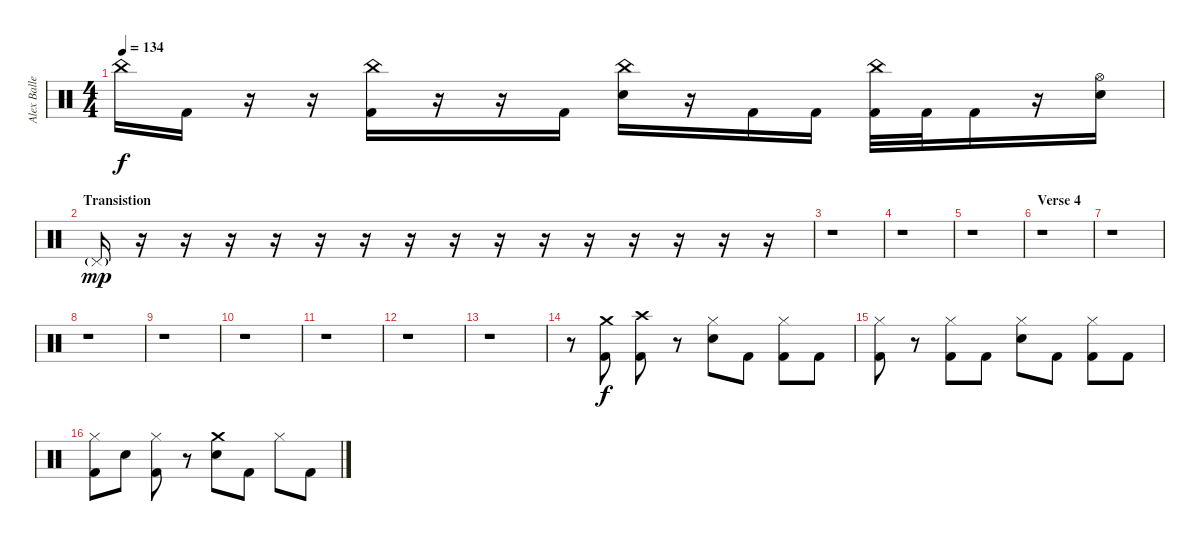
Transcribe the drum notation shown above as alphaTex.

\track ("Alex Ballew" "Alex Balle") {instrument percussion}
\staff {score}
\articulation defaults
\ts (4 4)
\tempo 134
\clef neutral
\ks c "China (hit)".16{dy f} "Kick (hit) 2".16
r.16 r.16 ("China (hit)" "Kick (hit) 2").16 r.16 r.16 "Kick (hit) 2".16 ("China (hit)" "Electric Snare (hit)").16 r.16 "Kick (hit) 2".16 "Kick (hit) 2".16 ("China (hit)" "Kick (hit) 2").32 "Kick (hit) 2".32 "Kick (hit) 2".16 r.16 ("Hi-Hat (open)" "Electric Snare (hit)").16 |
\section ("" "Transistion")
"Pedal Hi-Hat (hit)"{g}.16{dy mp} r.16 r.16 r.16 r.16 r.16 r.16 r.16 r.16 r.16 r.16 r.16 r.16 r.16 r.16 r.16 |
r.1 |
r.1 |
r.1 |
\section ("" "Verse 4")
r.1 |
r.1 |
r.1 |
r.1 |
r.1 |
r.1 |
r.1 |
r.1 |
r.8 ("Crash medium (hit)" "Kick (hit) 2").8{dy f} ("Crash high (hit)" "Kick (hit) 2").8 r.8 ("Hi-Hat (closed)" "Electric Snare (hit)").8 "Kick (hit) 2".8 ("Hi-Hat (closed)" "Kick (hit) 2").8 "Kick (hit) 2".8 |
("Hi-Hat (closed)" "Kick (hit) 2").8 r.8 ("Hi-Hat (closed)" "Kick (hit) 2").8 "Kick (hit) 2".8 ("Hi-Hat (closed)" "Electric Snare (hit)").8 "Kick (hit) 2".8 ("Hi-Hat (closed)" "Kick (hit) 2").8 "Kick (hit) 2".8 |
("Hi-Hat (closed)" "Kick (hit) 2").8 "Electric Snare (hit)".8 ("Hi-Hat (closed)" "Kick (hit) 2").8 r.8 ("Crash medium (hit)" "Electric Snare (hit)").8 "Kick (hit) 2".8 "Hi-Hat (closed)".8 "Kick (hit) 2".8
